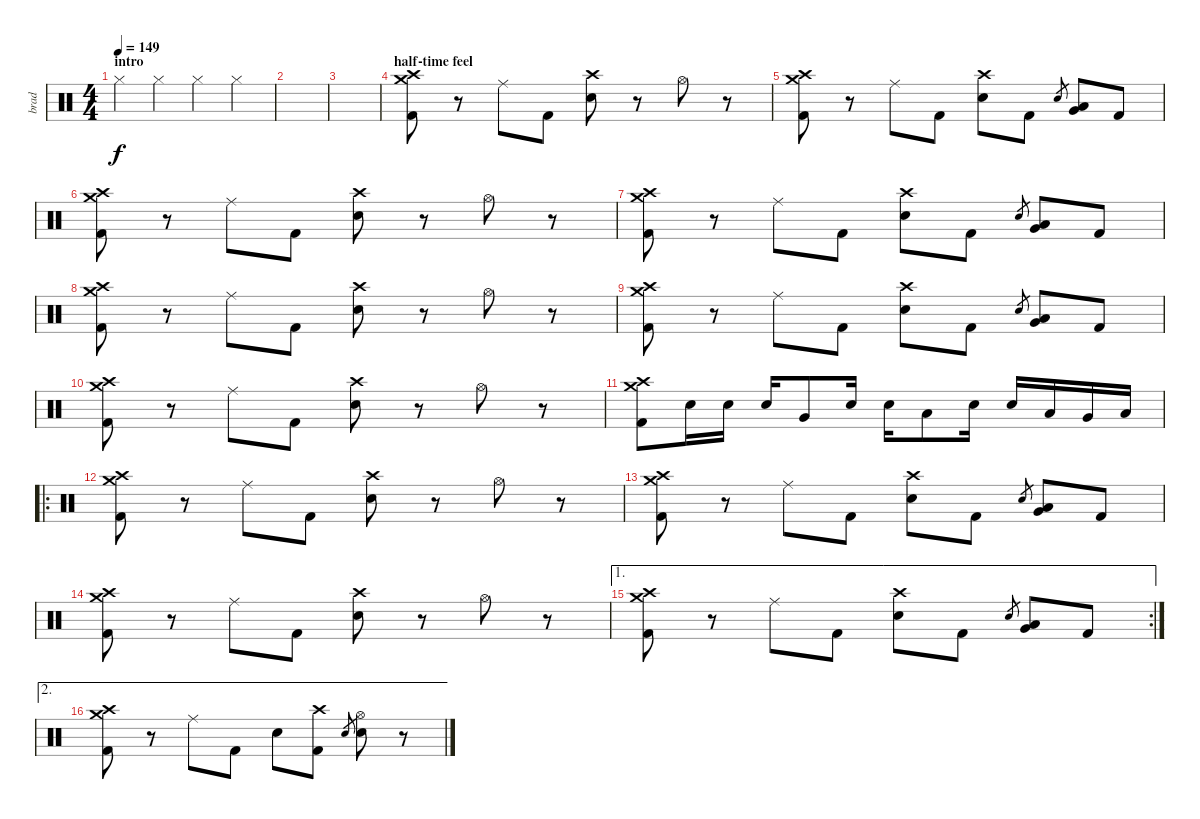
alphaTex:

\track ("brad" "brad") {instrument percussion}
\staff {score}
\articulation defaults
\ts (4 4)
\section ("" "intro")
\tempo 149
\clef neutral
\ks c "Hi-Hat (closed)".4{dy f} "Hi-Hat (closed)".4 "Hi-Hat (closed)".4 "Hi-Hat (closed)".4
|
|
|
\section ("" "half-time feel")
("Crash medium (hit)" "Crash high (hit)" "Kick (hit) 2").8 r.8 "Ride (middle)".8 "Kick (hit) 2".8 ("Crash high (hit)" "Electric Snare (hit)").8 r.8 "Hi-Hat (open)".8 r.8 |
("Crash medium (hit)" "Crash high (hit)" "Kick (hit) 2").8 r.8 "Ride (middle)".8 "Kick (hit) 2".8 ("Crash high (hit)" "Electric Snare (hit)").8 "Kick (hit) 2".8 "Electric Snare (hit)".8{gr} ("Very Low Tom (hit)" "Low Floor Tom (hit)").8 "Kick (hit) 2".8 |
("Crash medium (hit)" "Crash high (hit)" "Kick (hit) 2").8 r.8 "Ride (middle)".8 "Kick (hit) 2".8 ("Crash high (hit)" "Electric Snare (hit)").8 r.8 "Hi-Hat (open)".8 r.8 |
("Crash medium (hit)" "Crash high (hit)" "Kick (hit) 2").8 r.8 "Ride (middle)".8 "Kick (hit) 2".8 ("Crash high (hit)" "Electric Snare (hit)").8 "Kick (hit) 2".8 "Electric Snare (hit)".8{gr} ("Very Low Tom (hit)" "Low Floor Tom (hit)").8 "Kick (hit) 2".8 |
("Crash medium (hit)" "Crash high (hit)" "Kick (hit) 2").8 r.8 "Ride (middle)".8 "Kick (hit) 2".8 ("Crash high (hit)" "Electric Snare (hit)").8 r.8 "Hi-Hat (open)".8 r.8 |
("Crash medium (hit)" "Crash high (hit)" "Kick (hit) 2").8 r.8 "Ride (middle)".8 "Kick (hit) 2".8 ("Crash high (hit)" "Electric Snare (hit)").8 "Kick (hit) 2".8 "Electric Snare (hit)".8{gr} ("Very Low Tom (hit)" "Low Floor Tom (hit)").8 "Kick (hit) 2".8 |
("Crash medium (hit)" "Crash high (hit)" "Kick (hit) 2").8 r.8 "Ride (middle)".8 "Kick (hit) 2".8 ("Crash high (hit)" "Electric Snare (hit)").8 r.8 "Hi-Hat (open)".8 r.8 |
("Crash medium (hit)" "Crash high (hit)" "Kick (hit) 2").8 "Electric Snare (hit)".16 "Electric Snare (hit)".16 "Electric Snare (hit)".16 "Very Low Tom (hit)".8 "Electric Snare (hit)".16 "Electric Snare (hit)".16 "Low Floor Tom (hit)".8 "Electric Snare (hit)".16 "Electric Snare (hit)".16 "Low Tom (hit)".16 "Very Low Tom (hit)".16 "Low Floor Tom (hit)".16 |
\ro
("Crash medium (hit)" "Crash high (hit)" "Kick (hit) 2").8 r.8 "Ride (middle)".8 "Kick (hit) 2".8 ("Crash high (hit)" "Electric Snare (hit)").8 r.8 "Hi-Hat (open)".8 r.8 |
("Crash medium (hit)" "Crash high (hit)" "Kick (hit) 2").8 r.8 "Ride (middle)".8 "Kick (hit) 2".8 ("Crash high (hit)" "Electric Snare (hit)").8 "Kick (hit) 2".8 "Electric Snare (hit)".8{gr} ("Very Low Tom (hit)" "Low Floor Tom (hit)").8 "Kick (hit) 2".8 |
("Crash medium (hit)" "Crash high (hit)" "Kick (hit) 2").8 r.8 "Ride (middle)".8 "Kick (hit) 2".8 ("Crash high (hit)" "Electric Snare (hit)").8 r.8 "Hi-Hat (open)".8 r.8 |
\ae 1
\rc 2
("Crash medium (hit)" "Crash high (hit)" "Kick (hit) 2").8 r.8 "Ride (middle)".8 "Kick (hit) 2".8 ("Crash high (hit)" "Electric Snare (hit)").8 "Kick (hit) 2".8 "Electric Snare (hit)".8{gr} ("Very Low Tom (hit)" "Low Floor Tom (hit)").8 "Kick (hit) 2".8 |
\ae 2
("Crash medium (hit)" "Crash high (hit)" "Kick (hit) 2").8 r.8 "Ride (middle)".8 "Kick (hit) 2".8 "Electric Snare (hit)".8 ("Crash high (hit)" "Kick (hit) 2").8 "Electric Snare (hit)".8{gr} ("Hi-Hat (open)" "Electric Snare (hit)").8 r.8
